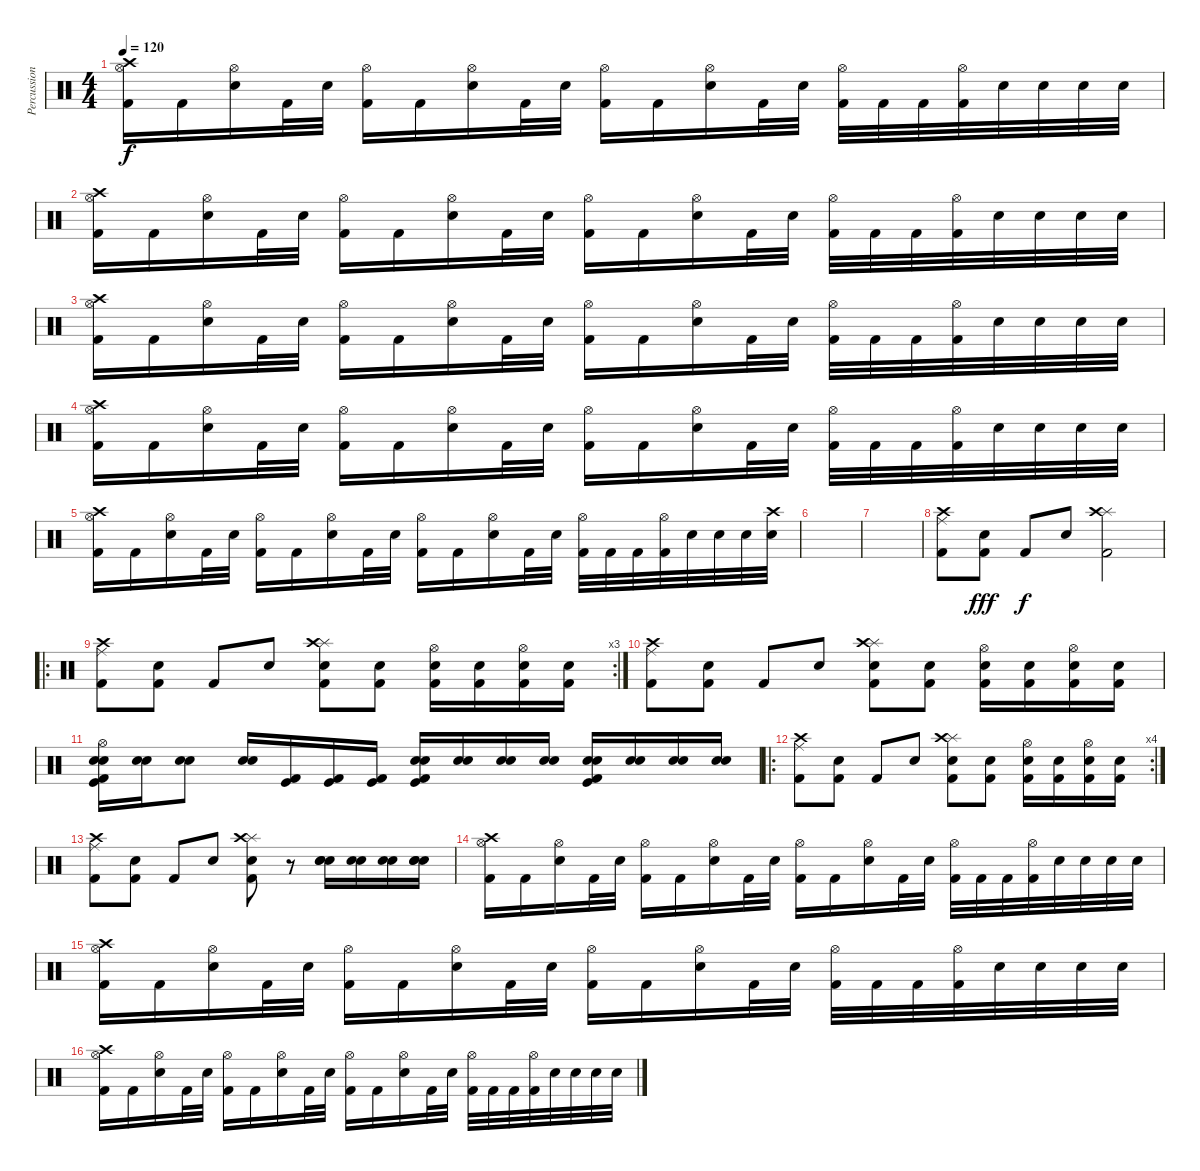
\track ("Percussions" "Percussion") {instrument percussion}
\staff {score}
\articulation defaults
\ts (4 4)
\tempo 120
\clef neutral
\ks c
("Crash high (hit)" "Hi-Hat (open)" "Kick (hit) 2").16{dy f} "Kick (hit) 2".16 ("Hi-Hat (open)" "Electric Snare (hit)").16 "Kick (hit) 2".32 "Electric Snare (hit)".32 ("Hi-Hat (open)" "Kick (hit) 2").16 "Kick (hit) 2".16 ("Hi-Hat (open)" "Electric Snare (hit)").16 "Kick (hit) 2".32 "Electric Snare (hit)".32 ("Hi-Hat (open)" "Kick (hit) 2").16 "Kick (hit) 2".16 ("Hi-Hat (open)" "Electric Snare (hit)").16 "Kick (hit) 2".32 "Electric Snare (hit)".32 ("Hi-Hat (open)" "Kick (hit) 2").32 "Kick (hit) 2".32 "Kick (hit) 2".32 ("Hi-Hat (open)" "Kick (hit) 2").32 "Electric Snare (hit)".32 "Electric Snare (hit)".32 "Electric Snare (hit)".32 "Electric Snare (hit)".32 |
("Crash high (hit)" "Hi-Hat (open)" "Kick (hit) 2").16 "Kick (hit) 2".16 ("Hi-Hat (open)" "Electric Snare (hit)").16 "Kick (hit) 2".32 "Electric Snare (hit)".32 ("Hi-Hat (open)" "Kick (hit) 2").16 "Kick (hit) 2".16 ("Hi-Hat (open)" "Electric Snare (hit)").16 "Kick (hit) 2".32 "Electric Snare (hit)".32 ("Hi-Hat (open)" "Kick (hit) 2").16 "Kick (hit) 2".16 ("Hi-Hat (open)" "Electric Snare (hit)").16 "Kick (hit) 2".32 "Electric Snare (hit)".32 ("Hi-Hat (open)" "Kick (hit) 2").32 "Kick (hit) 2".32 "Kick (hit) 2".32 ("Hi-Hat (open)" "Kick (hit) 2").32 "Electric Snare (hit)".32 "Electric Snare (hit)".32 "Electric Snare (hit)".32 "Electric Snare (hit)".32 |
("Crash high (hit)" "Hi-Hat (open)" "Kick (hit) 2").16 "Kick (hit) 2".16 ("Hi-Hat (open)" "Electric Snare (hit)").16 "Kick (hit) 2".32 "Electric Snare (hit)".32 ("Hi-Hat (open)" "Kick (hit) 2").16 "Kick (hit) 2".16 ("Hi-Hat (open)" "Electric Snare (hit)").16 "Kick (hit) 2".32 "Electric Snare (hit)".32 ("Hi-Hat (open)" "Kick (hit) 2").16 "Kick (hit) 2".16 ("Hi-Hat (open)" "Electric Snare (hit)").16 "Kick (hit) 2".32 "Electric Snare (hit)".32 ("Hi-Hat (open)" "Kick (hit) 2").32 "Kick (hit) 2".32 "Kick (hit) 2".32 ("Hi-Hat (open)" "Kick (hit) 2").32 "Electric Snare (hit)".32 "Electric Snare (hit)".32 "Electric Snare (hit)".32 "Electric Snare (hit)".32 |
("Crash high (hit)" "Hi-Hat (open)" "Kick (hit) 2").16 "Kick (hit) 2".16 ("Hi-Hat (open)" "Electric Snare (hit)").16 "Kick (hit) 2".32 "Electric Snare (hit)".32 ("Hi-Hat (open)" "Kick (hit) 2").16 "Kick (hit) 2".16 ("Hi-Hat (open)" "Electric Snare (hit)").16 "Kick (hit) 2".32 "Electric Snare (hit)".32 ("Hi-Hat (open)" "Kick (hit) 2").16 "Kick (hit) 2".16 ("Hi-Hat (open)" "Electric Snare (hit)").16 "Kick (hit) 2".32 "Electric Snare (hit)".32 ("Hi-Hat (open)" "Kick (hit) 2").32 "Kick (hit) 2".32 "Kick (hit) 2".32 ("Hi-Hat (open)" "Kick (hit) 2").32 "Electric Snare (hit)".32 "Electric Snare (hit)".32 "Electric Snare (hit)".32 "Electric Snare (hit)".32 |
("Crash high (hit)" "Hi-Hat (open)" "Kick (hit) 2").16 "Kick (hit) 2".16 ("Hi-Hat (open)" "Electric Snare (hit)").16 "Kick (hit) 2".32 "Electric Snare (hit)".32 ("Hi-Hat (open)" "Kick (hit) 2").16 "Kick (hit) 2".16 ("Hi-Hat (open)" "Electric Snare (hit)").16 "Kick (hit) 2".32 "Electric Snare (hit)".32 ("Hi-Hat (open)" "Kick (hit) 2").16 "Kick (hit) 2".16 ("Hi-Hat (open)" "Electric Snare (hit)").16 "Kick (hit) 2".32 "Electric Snare (hit)".32 ("Hi-Hat (open)" "Kick (hit) 2").32 "Kick (hit) 2".32 "Kick (hit) 2".32 ("Hi-Hat (open)" "Kick (hit) 2").32 "Electric Snare (hit)".32 "Electric Snare (hit)".32 "Electric Snare (hit)".32 ("Crash high (hit)" "Electric Snare (hit)").32 |
|
|
("Ride (middle)" "Crash high (hit)" "Kick (hit) 2").8 ("Electric Snare (hit)" "Kick (hit) 2").8{dy fff} "Kick (hit) 2".8{dy f} "Electric Snare (hit)".8 ("Splash (hit)" "Crash high (hit)" "Kick (hit) 2").2 |
\ro
\rc 3
("Ride (middle)" "Crash high (hit)" "Kick (hit) 2").8 ("Electric Snare (hit)" "Kick (hit) 2").8 "Kick (hit) 2".8 "Electric Snare (hit)".8 ("Electric Snare (hit)" "Splash (hit)" "Crash high (hit)" "Kick (hit) 2").8 ("Electric Snare (hit)" "Kick (hit) 2").8 ("Hi-Hat (open)" "Electric Snare (hit)" "Kick (hit) 2").16 ("Electric Snare (hit)" "Kick (hit) 2").16 ("Hi-Hat (open)" "Electric Snare (hit)" "Kick (hit) 2").16 ("Electric Snare (hit)" "Kick (hit) 2").16 |
("Ride (middle)" "Crash high (hit)" "Kick (hit) 2").8 ("Electric Snare (hit)" "Kick (hit) 2").8 "Kick (hit) 2".8 "Electric Snare (hit)".8 ("Electric Snare (hit)" "Splash (hit)" "Crash high (hit)" "Kick (hit) 2").8 ("Electric Snare (hit)" "Kick (hit) 2").8 ("Hi-Hat (open)" "Electric Snare (hit)" "Kick (hit) 2").16 ("Electric Snare (hit)" "Kick (hit) 2").16 ("Hi-Hat (open)" "Electric Snare (hit)" "Kick (hit) 2").16 ("Electric Snare (hit)" "Kick (hit) 2").16 |
("Hi-Hat (open)" "Electric Snare (hit)" "Electric Snare (hit)" "Kick (hit)" "Kick (hit) 2").16 ("Electric Snare (hit)" "Electric Snare (hit)").16 ("Electric Snare (hit)" "Electric Snare (hit)").8 ("Electric Snare (hit)" "Electric Snare (hit)").16 ("Kick (hit)" "Kick (hit) 2").16 ("Kick (hit) 2" "Kick (hit)").16 ("Kick (hit) 2" "Kick (hit)").16 ("Electric Snare (hit)" "Electric Snare (hit)" "Kick (hit) 2" "Kick (hit)").16 ("Electric Snare (hit)" "Electric Snare (hit)").16 ("Electric Snare (hit)" "Electric Snare (hit)").16 ("Electric Snare (hit)" "Electric Snare (hit)").16 ("Electric Snare (hit)" "Electric Snare (hit)" "Kick (hit) 2" "Kick (hit)").16 ("Electric Snare (hit)" "Electric Snare (hit)").16 ("Electric Snare (hit)" "Electric Snare (hit)").16 ("Electric Snare (hit)" "Electric Snare (hit)").16 |
\ro
\rc 4
("Ride (middle)" "Crash high (hit)" "Kick (hit) 2").8 ("Electric Snare (hit)" "Kick (hit) 2").8 "Kick (hit) 2".8 "Electric Snare (hit)".8 ("Electric Snare (hit)" "Splash (hit)" "Crash high (hit)" "Kick (hit) 2").8 ("Electric Snare (hit)" "Kick (hit) 2").8 ("Hi-Hat (open)" "Electric Snare (hit)" "Kick (hit) 2").16 ("Electric Snare (hit)" "Kick (hit) 2").16 ("Hi-Hat (open)" "Electric Snare (hit)" "Kick (hit) 2").16 ("Electric Snare (hit)" "Kick (hit) 2").16 |
("Ride (middle)" "Crash high (hit)" "Kick (hit) 2").8 ("Electric Snare (hit)" "Kick (hit) 2").8 "Kick (hit) 2".8 "Electric Snare (hit)".8 ("Electric Snare (hit)" "Splash (hit)" "Crash high (hit)" "Kick (hit) 2").8 r.8 ("Electric Snare (hit)" "Electric Snare (hit)" "Electric Snare (hit)").16 ("Electric Snare (hit)" "Electric Snare (hit)").16 ("Electric Snare (hit)" "Electric Snare (hit)").16 ("Electric Snare (hit)" "Electric Snare (hit)" "Electric Snare (hit)").16 |
("Crash high (hit)" "Hi-Hat (open)" "Kick (hit) 2").16 "Kick (hit) 2".16 ("Hi-Hat (open)" "Electric Snare (hit)").16 "Kick (hit) 2".32 "Electric Snare (hit)".32 ("Hi-Hat (open)" "Kick (hit) 2").16 "Kick (hit) 2".16 ("Hi-Hat (open)" "Electric Snare (hit)").16 "Kick (hit) 2".32 "Electric Snare (hit)".32 ("Hi-Hat (open)" "Kick (hit) 2").16 "Kick (hit) 2".16 ("Hi-Hat (open)" "Electric Snare (hit)").16 "Kick (hit) 2".32 "Electric Snare (hit)".32 ("Hi-Hat (open)" "Kick (hit) 2").32 "Kick (hit) 2".32 "Kick (hit) 2".32 ("Hi-Hat (open)" "Kick (hit) 2").32 "Electric Snare (hit)".32 "Electric Snare (hit)".32 "Electric Snare (hit)".32 "Electric Snare (hit)".32 |
("Crash high (hit)" "Hi-Hat (open)" "Kick (hit) 2").16 "Kick (hit) 2".16 ("Hi-Hat (open)" "Electric Snare (hit)").16 "Kick (hit) 2".32 "Electric Snare (hit)".32 ("Hi-Hat (open)" "Kick (hit) 2").16 "Kick (hit) 2".16 ("Hi-Hat (open)" "Electric Snare (hit)").16 "Kick (hit) 2".32 "Electric Snare (hit)".32 ("Hi-Hat (open)" "Kick (hit) 2").16 "Kick (hit) 2".16 ("Hi-Hat (open)" "Electric Snare (hit)").16 "Kick (hit) 2".32 "Electric Snare (hit)".32 ("Hi-Hat (open)" "Kick (hit) 2").32 "Kick (hit) 2".32 "Kick (hit) 2".32 ("Hi-Hat (open)" "Kick (hit) 2").32 "Electric Snare (hit)".32 "Electric Snare (hit)".32 "Electric Snare (hit)".32 "Electric Snare (hit)".32 |
("Crash high (hit)" "Hi-Hat (open)" "Kick (hit) 2").16 "Kick (hit) 2".16 ("Hi-Hat (open)" "Electric Snare (hit)").16 "Kick (hit) 2".32 "Electric Snare (hit)".32 ("Hi-Hat (open)" "Kick (hit) 2").16 "Kick (hit) 2".16 ("Hi-Hat (open)" "Electric Snare (hit)").16 "Kick (hit) 2".32 "Electric Snare (hit)".32 ("Hi-Hat (open)" "Kick (hit) 2").16 "Kick (hit) 2".16 ("Hi-Hat (open)" "Electric Snare (hit)").16 "Kick (hit) 2".32 "Electric Snare (hit)".32 ("Hi-Hat (open)" "Kick (hit) 2").32 "Kick (hit) 2".32 "Kick (hit) 2".32 ("Hi-Hat (open)" "Kick (hit) 2").32 "Electric Snare (hit)".32 "Electric Snare (hit)".32 "Electric Snare (hit)".32 "Electric Snare (hit)".32
